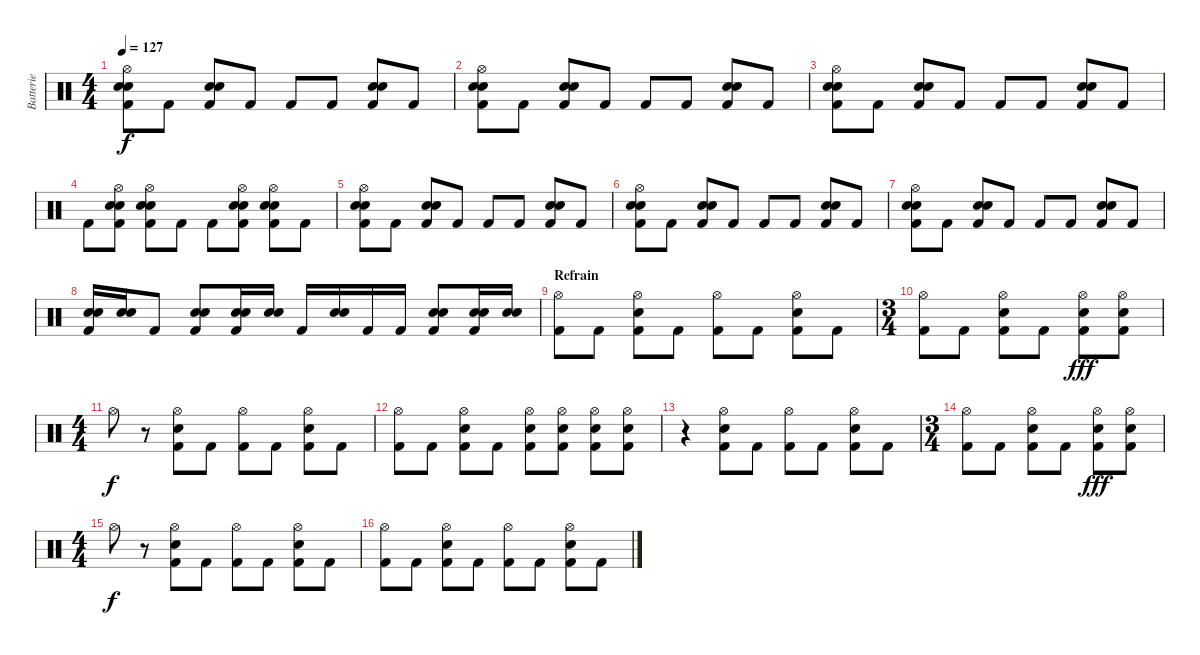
\track ("Batterie" "Batterie") {instrument percussion}
\staff {score}
\articulation defaults
\ts (4 4)
\tempo 127
\clef neutral
\ks c
("Hi-Hat (open)" "Electric Snare (hit)" "Electric Snare (hit)" "Kick (hit) 2").8{dy f} "Kick (hit) 2".8 ("Electric Snare (hit)" "Electric Snare (hit)" "Kick (hit) 2").8 "Kick (hit) 2".8 "Kick (hit) 2".8 "Kick (hit) 2".8 ("Electric Snare (hit)" "Electric Snare (hit)" "Kick (hit) 2").8 "Kick (hit) 2".8 |
("Hi-Hat (open)" "Electric Snare (hit)" "Electric Snare (hit)" "Kick (hit) 2").8 "Kick (hit) 2".8 ("Electric Snare (hit)" "Electric Snare (hit)" "Kick (hit) 2").8 "Kick (hit) 2".8 "Kick (hit) 2".8 "Kick (hit) 2".8 ("Electric Snare (hit)" "Electric Snare (hit)" "Kick (hit) 2").8 "Kick (hit) 2".8 |
("Hi-Hat (open)" "Electric Snare (hit)" "Electric Snare (hit)" "Kick (hit) 2").8 "Kick (hit) 2".8 ("Electric Snare (hit)" "Electric Snare (hit)" "Kick (hit) 2").8 "Kick (hit) 2".8 "Kick (hit) 2".8 "Kick (hit) 2".8 ("Electric Snare (hit)" "Electric Snare (hit)" "Kick (hit) 2").8 "Kick (hit) 2".8 |
"Kick (hit) 2".8 ("Hi-Hat (open)" "Electric Snare (hit)" "Electric Snare (hit)" "Kick (hit) 2").8 ("Hi-Hat (open)" "Electric Snare (hit)" "Electric Snare (hit)" "Kick (hit) 2").8 "Kick (hit) 2".8 "Kick (hit) 2".8 ("Hi-Hat (open)" "Electric Snare (hit)" "Electric Snare (hit)" "Kick (hit) 2").8 ("Hi-Hat (open)" "Electric Snare (hit)" "Electric Snare (hit)" "Kick (hit) 2").8 "Kick (hit) 2".8 |
("Hi-Hat (open)" "Electric Snare (hit)" "Electric Snare (hit)" "Kick (hit) 2").8 "Kick (hit) 2".8 ("Electric Snare (hit)" "Electric Snare (hit)" "Kick (hit) 2").8 "Kick (hit) 2".8 "Kick (hit) 2".8 "Kick (hit) 2".8 ("Electric Snare (hit)" "Electric Snare (hit)" "Kick (hit) 2").8 "Kick (hit) 2".8 |
("Hi-Hat (open)" "Electric Snare (hit)" "Electric Snare (hit)" "Kick (hit) 2").8 "Kick (hit) 2".8 ("Electric Snare (hit)" "Electric Snare (hit)" "Kick (hit) 2").8 "Kick (hit) 2".8 "Kick (hit) 2".8 "Kick (hit) 2".8 ("Electric Snare (hit)" "Electric Snare (hit)" "Kick (hit) 2").8 "Kick (hit) 2".8 |
("Hi-Hat (open)" "Electric Snare (hit)" "Electric Snare (hit)" "Kick (hit) 2").8 "Kick (hit) 2".8 ("Electric Snare (hit)" "Electric Snare (hit)" "Kick (hit) 2").8 "Kick (hit) 2".8 "Kick (hit) 2".8 "Kick (hit) 2".8 ("Electric Snare (hit)" "Electric Snare (hit)" "Kick (hit) 2").8 "Kick (hit) 2".8 |
("Electric Snare (hit)" "Electric Snare (hit)" "Kick (hit) 2").16{volume 16} ("Electric Snare (hit)" "Electric Snare (hit)").16 "Kick (hit) 2".8 ("Electric Snare (hit)" "Electric Snare (hit)" "Kick (hit) 2").8 ("Electric Snare (hit)" "Electric Snare (hit)" "Kick (hit) 2").16 ("Electric Snare (hit)" "Electric Snare (hit)").16 "Kick (hit) 2".16 ("Electric Snare (hit)" "Electric Snare (hit)").16 "Kick (hit) 2".16 "Kick (hit) 2".16 ("Electric Snare (hit)" "Electric Snare (hit)" "Kick (hit) 2").8 ("Electric Snare (hit)" "Electric Snare (hit)" "Kick (hit) 2").16 ("Electric Snare (hit)" "Electric Snare (hit)").16 |
\section ("" "Refrain")
("Hi-Hat (open)" "Kick (hit) 2").8 "Kick (hit) 2".8 ("Hi-Hat (open)" "Electric Snare (hit)" "Kick (hit) 2").8 "Kick (hit) 2".8 ("Hi-Hat (open)" "Kick (hit) 2").8 "Kick (hit) 2".8 ("Hi-Hat (open)" "Electric Snare (hit)" "Kick (hit) 2").8 "Kick (hit) 2".8 |
\ts (3 4)
("Hi-Hat (open)" "Kick (hit) 2").8 "Kick (hit) 2".8 ("Hi-Hat (open)" "Electric Snare (hit)" "Kick (hit) 2").8 "Kick (hit) 2".8 ("Hi-Hat (open)" "Electric Snare (hit)" "Kick (hit) 2").8{dy fff} ("Hi-Hat (open)" "Electric Snare (hit)" "Kick (hit) 2").8 |
\ts (4 4)
"Hi-Hat (open)".8{dy f} r.8 ("Hi-Hat (open)" "Electric Snare (hit)" "Kick (hit) 2").8 "Kick (hit) 2".8 ("Hi-Hat (open)" "Kick (hit) 2").8 "Kick (hit) 2".8 ("Hi-Hat (open)" "Electric Snare (hit)" "Kick (hit) 2").8 "Kick (hit) 2".8 |
("Hi-Hat (open)" "Kick (hit) 2").8 "Kick (hit) 2".8 ("Hi-Hat (open)" "Electric Snare (hit)" "Kick (hit) 2").8 "Kick (hit) 2".8 ("Hi-Hat (open)" "Electric Snare (hit)" "Kick (hit) 2").8 ("Hi-Hat (open)" "Electric Snare (hit)" "Kick (hit) 2").8 ("Hi-Hat (open)" "Electric Snare (hit)" "Kick (hit) 2").8 ("Hi-Hat (open)" "Electric Snare (hit)" "Kick (hit) 2").8 |
r.4 ("Hi-Hat (open)" "Electric Snare (hit)" "Kick (hit) 2").8 "Kick (hit) 2".8 ("Hi-Hat (open)" "Kick (hit) 2").8 "Kick (hit) 2".8 ("Hi-Hat (open)" "Electric Snare (hit)" "Kick (hit) 2").8 "Kick (hit) 2".8 |
\ts (3 4)
("Hi-Hat (open)" "Kick (hit) 2").8 "Kick (hit) 2".8 ("Hi-Hat (open)" "Electric Snare (hit)" "Kick (hit) 2").8 "Kick (hit) 2".8 ("Hi-Hat (open)" "Electric Snare (hit)" "Kick (hit) 2").8{dy fff} ("Hi-Hat (open)" "Electric Snare (hit)" "Kick (hit) 2").8 |
\ts (4 4)
"Hi-Hat (open)".8{dy f} r.8 ("Hi-Hat (open)" "Electric Snare (hit)" "Kick (hit) 2").8 "Kick (hit) 2".8 ("Hi-Hat (open)" "Kick (hit) 2").8 "Kick (hit) 2".8 ("Hi-Hat (open)" "Electric Snare (hit)" "Kick (hit) 2").8 "Kick (hit) 2".8 |
("Hi-Hat (open)" "Kick (hit) 2").8 "Kick (hit) 2".8 ("Hi-Hat (open)" "Electric Snare (hit)" "Kick (hit) 2").8 "Kick (hit) 2".8 ("Hi-Hat (open)" "Kick (hit) 2").8 "Kick (hit) 2".8 ("Hi-Hat (open)" "Electric Snare (hit)" "Kick (hit) 2").8 "Kick (hit) 2".8
